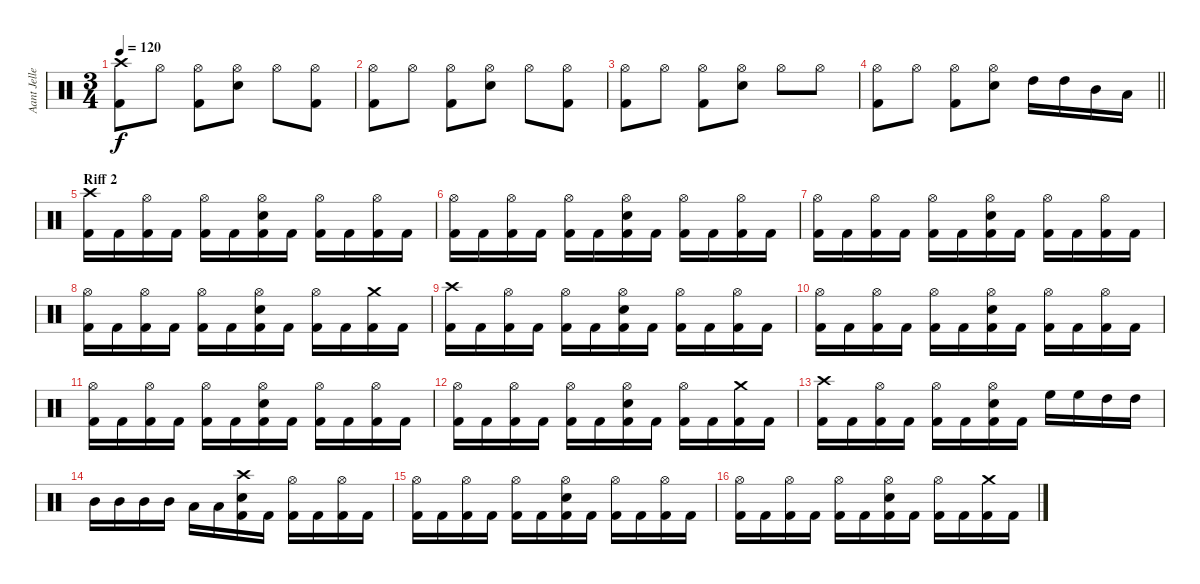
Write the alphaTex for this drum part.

\track ("Aant Jelle" "Aant Jelle") {instrument percussion}
\staff {score}
\articulation defaults
\ts (3 4)
\tempo 120
\clef neutral
\ks c
("Crash high (hit)" "Kick (hit) 2").8{dy f} "Hi-Hat (open)".8 ("Hi-Hat (open)" "Kick (hit) 2").8 ("Hi-Hat (open)" "Snare (hit) 2").8 "Hi-Hat (open)".8 ("Hi-Hat (open)" "Kick (hit) 2").8 |
("Hi-Hat (open)" "Kick (hit) 2").8 "Hi-Hat (open)".8 ("Hi-Hat (open)" "Kick (hit) 2").8 ("Hi-Hat (open)" "Snare (hit) 2").8 "Hi-Hat (open)".8 ("Hi-Hat (open)" "Kick (hit) 2").8 |
("Hi-Hat (open)" "Kick (hit) 2").8 "Hi-Hat (open)".8 ("Hi-Hat (open)" "Kick (hit) 2").8 ("Hi-Hat (open)" "Snare (hit) 2").8 "Hi-Hat (open)".8 "Hi-Hat (open)".8 |
\barLineRight lightlight
("Hi-Hat (open)" "Kick (hit) 2").8 "Hi-Hat (open)".8 ("Hi-Hat (open)" "Kick (hit) 2").8 ("Hi-Hat (open)" "Snare (hit) 2").8 "High Tom (hit)".16 "High Tom (hit)".16 "Mid Tom (hit)".16 "Low Tom (hit)".16 |
\section ("" "Riff 2")
("Crash high (hit)" "Kick (hit) 2").16 "Kick (hit) 2".16 ("Hi-Hat (open)" "Kick (hit) 2").16 "Kick (hit) 2".16 ("Hi-Hat (open)" "Kick (hit) 2").16 "Kick (hit) 2".16 ("Hi-Hat (open)" "Snare (hit) 2" "Kick (hit) 2").16 "Kick (hit) 2".16 ("Hi-Hat (open)" "Kick (hit) 2").16 "Kick (hit) 2".16 ("Hi-Hat (open)" "Kick (hit) 2").16 "Kick (hit) 2".16 |
("Hi-Hat (open)" "Kick (hit) 2").16 "Kick (hit) 2".16 ("Hi-Hat (open)" "Kick (hit) 2").16 "Kick (hit) 2".16 ("Hi-Hat (open)" "Kick (hit) 2").16 "Kick (hit) 2".16 ("Hi-Hat (open)" "Snare (hit) 2" "Kick (hit) 2").16 "Kick (hit) 2".16 ("Hi-Hat (open)" "Kick (hit) 2").16 "Kick (hit) 2".16 ("Hi-Hat (open)" "Kick (hit) 2").16 "Kick (hit) 2".16 |
("Hi-Hat (open)" "Kick (hit) 2").16 "Kick (hit) 2".16 ("Hi-Hat (open)" "Kick (hit) 2").16 "Kick (hit) 2".16 ("Hi-Hat (open)" "Kick (hit) 2").16 "Kick (hit) 2".16 ("Hi-Hat (open)" "Snare (hit) 2" "Kick (hit) 2").16 "Kick (hit) 2".16 ("Hi-Hat (open)" "Kick (hit) 2").16 "Kick (hit) 2".16 ("Hi-Hat (open)" "Kick (hit) 2").16 "Kick (hit) 2".16 |
("Hi-Hat (open)" "Kick (hit) 2").16 "Kick (hit) 2".16 ("Hi-Hat (open)" "Kick (hit) 2").16 "Kick (hit) 2".16 ("Hi-Hat (open)" "Kick (hit) 2").16 "Kick (hit) 2".16 ("Hi-Hat (open)" "Snare (hit) 2" "Kick (hit) 2").16 "Kick (hit) 2".16 ("Hi-Hat (open)" "Kick (hit) 2").16 "Kick (hit) 2".16 ("Crash medium (hit)" "Kick (hit) 2").16 "Kick (hit) 2".16 |
("Crash high (hit)" "Kick (hit) 2").16 "Kick (hit) 2".16 ("Hi-Hat (open)" "Kick (hit) 2").16 "Kick (hit) 2".16 ("Hi-Hat (open)" "Kick (hit) 2").16 "Kick (hit) 2".16 ("Hi-Hat (open)" "Snare (hit) 2" "Kick (hit) 2").16 "Kick (hit) 2".16 ("Hi-Hat (open)" "Kick (hit) 2").16 "Kick (hit) 2".16 ("Hi-Hat (open)" "Kick (hit) 2").16 "Kick (hit) 2".16 |
("Hi-Hat (open)" "Kick (hit) 2").16 "Kick (hit) 2".16 ("Hi-Hat (open)" "Kick (hit) 2").16 "Kick (hit) 2".16 ("Hi-Hat (open)" "Kick (hit) 2").16 "Kick (hit) 2".16 ("Hi-Hat (open)" "Snare (hit) 2" "Kick (hit) 2").16 "Kick (hit) 2".16 ("Hi-Hat (open)" "Kick (hit) 2").16 "Kick (hit) 2".16 ("Hi-Hat (open)" "Kick (hit) 2").16 "Kick (hit) 2".16 |
("Hi-Hat (open)" "Kick (hit) 2").16 "Kick (hit) 2".16 ("Hi-Hat (open)" "Kick (hit) 2").16 "Kick (hit) 2".16 ("Hi-Hat (open)" "Kick (hit) 2").16 "Kick (hit) 2".16 ("Hi-Hat (open)" "Snare (hit) 2" "Kick (hit) 2").16 "Kick (hit) 2".16 ("Hi-Hat (open)" "Kick (hit) 2").16 "Kick (hit) 2".16 ("Hi-Hat (open)" "Kick (hit) 2").16 "Kick (hit) 2".16 |
("Hi-Hat (open)" "Kick (hit) 2").16 "Kick (hit) 2".16 ("Hi-Hat (open)" "Kick (hit) 2").16 "Kick (hit) 2".16 ("Hi-Hat (open)" "Kick (hit) 2").16 "Kick (hit) 2".16 ("Hi-Hat (open)" "Snare (hit) 2" "Kick (hit) 2").16 "Kick (hit) 2".16 ("Hi-Hat (open)" "Kick (hit) 2").16 "Kick (hit) 2".16 ("Crash medium (hit)" "Kick (hit) 2").16 "Kick (hit) 2".16 |
("Crash high (hit)" "Kick (hit) 2").16 "Kick (hit) 2".16 ("Hi-Hat (open)" "Kick (hit) 2").16 "Kick (hit) 2".16 ("Hi-Hat (open)" "Kick (hit) 2").16 "Kick (hit) 2".16 ("Hi-Hat (open)" "Snare (hit) 2" "Kick (hit) 2").16 "Kick (hit) 2".16 "High Floor Tom (hit)".16 "High Floor Tom (hit)".16 "High Tom (hit)".16 "High Tom (hit)".16 |
"Mid Tom (hit)".16 "Mid Tom (hit)".16 "Mid Tom (hit)".16 "Mid Tom (hit)".16 "Low Tom (hit)".16 "Low Tom (hit)".16 ("Crash high (hit)" "Snare (hit) 2" "Kick (hit) 2").16 "Kick (hit) 2".16 ("Hi-Hat (open)" "Kick (hit) 2").16 "Kick (hit) 2".16 ("Hi-Hat (open)" "Kick (hit) 2").16 "Kick (hit) 2".16 |
("Hi-Hat (open)" "Kick (hit) 2").16 "Kick (hit) 2".16 ("Hi-Hat (open)" "Kick (hit) 2").16 "Kick (hit) 2".16 ("Hi-Hat (open)" "Kick (hit) 2").16 "Kick (hit) 2".16 ("Hi-Hat (open)" "Snare (hit) 2" "Kick (hit) 2").16 "Kick (hit) 2".16 ("Hi-Hat (open)" "Kick (hit) 2").16 "Kick (hit) 2".16 ("Hi-Hat (open)" "Kick (hit) 2").16 "Kick (hit) 2".16 |
("Hi-Hat (open)" "Kick (hit) 2").16 "Kick (hit) 2".16 ("Hi-Hat (open)" "Kick (hit) 2").16 "Kick (hit) 2".16 ("Hi-Hat (open)" "Kick (hit) 2").16 "Kick (hit) 2".16 ("Hi-Hat (open)" "Snare (hit) 2" "Kick (hit) 2").16 "Kick (hit) 2".16 ("Hi-Hat (open)" "Kick (hit) 2").16 "Kick (hit) 2".16 ("Crash medium (hit)" "Kick (hit) 2").16 "Kick (hit) 2".16
